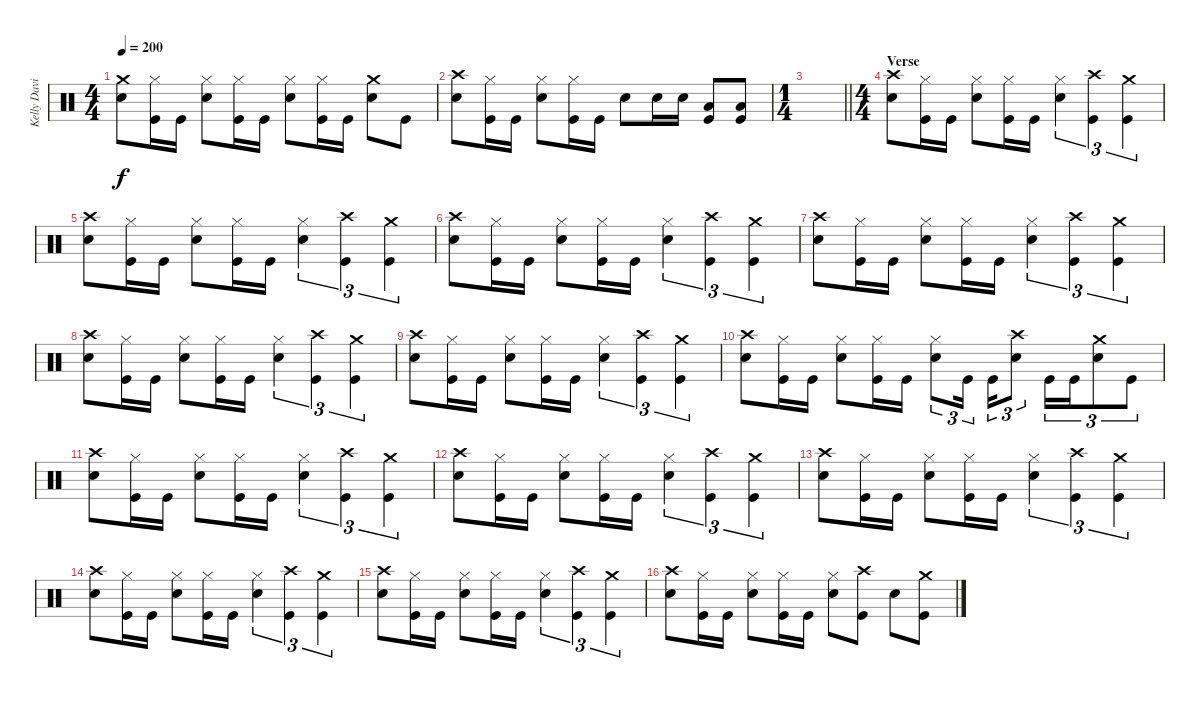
\track ("Kelly David Smith" "Kelly Davi") {instrument percussion}
\staff {score}
\articulation defaults
\ts (4 4)
\tempo 200
\clef neutral
\ks c
("Crash medium (hit)" "Snare (hit) 2").8{dy f} ("Hi-Hat (closed)" "Kick (hit)").16 "Kick (hit)".16 ("Hi-Hat (closed)" "Snare (hit) 2").8 ("Hi-Hat (closed)" "Kick (hit)").16 "Kick (hit)".16 ("Hi-Hat (closed)" "Snare (hit) 2").8 ("Hi-Hat (closed)" "Kick (hit)").16 "Kick (hit)".16 ("Crash medium (hit)" "Snare (hit) 2").8 "Kick (hit)".8 |
("Crash high (hit)" "Snare (hit) 2").8 ("Hi-Hat (closed)" "Kick (hit)").16 "Kick (hit)".16 ("Hi-Hat (closed)" "Snare (hit) 2").8 ("Hi-Hat (closed)" "Kick (hit)").16 "Kick (hit)".16 "Snare (hit) 2".8 "Snare (hit) 2".16 "Snare (hit) 2".16 ("Low Floor Tom (hit)" "Kick (hit)").8 ("Low Floor Tom (hit)" "Kick (hit)").8 |
\ts (1 4)
\barLineRight lightlight
|
\ts (4 4)
\section ("" "Verse")
("Crash high (hit)" "Snare (hit) 2").8 ("Hi-Hat (closed)" "Kick (hit)").16 "Kick (hit)".16 ("Hi-Hat (closed)" "Snare (hit) 2").8 ("Hi-Hat (closed)" "Kick (hit)").16 "Kick (hit)".16 ("Hi-Hat (closed)" "Snare (hit) 2").4{tu (3 2)} ("Crash high (hit)" "Kick (hit)").4{tu (3 2)} ("Crash medium (hit)" "Kick (hit)").4{tu (3 2)} |
("Crash high (hit)" "Snare (hit) 2").8 ("Hi-Hat (closed)" "Kick (hit)").16 "Kick (hit)".16 ("Hi-Hat (closed)" "Snare (hit) 2").8 ("Hi-Hat (closed)" "Kick (hit)").16 "Kick (hit)".16 ("Hi-Hat (closed)" "Snare (hit) 2").4{tu (3 2)} ("Crash high (hit)" "Kick (hit)").4{tu (3 2)} ("Crash medium (hit)" "Kick (hit)").4{tu (3 2)} |
("Crash high (hit)" "Snare (hit) 2").8 ("Hi-Hat (closed)" "Kick (hit)").16 "Kick (hit)".16 ("Hi-Hat (closed)" "Snare (hit) 2").8 ("Hi-Hat (closed)" "Kick (hit)").16 "Kick (hit)".16 ("Hi-Hat (closed)" "Snare (hit) 2").4{tu (3 2)} ("Crash high (hit)" "Kick (hit)").4{tu (3 2)} ("Crash medium (hit)" "Kick (hit)").4{tu (3 2)} |
("Crash high (hit)" "Snare (hit) 2").8 ("Hi-Hat (closed)" "Kick (hit)").16 "Kick (hit)".16 ("Hi-Hat (closed)" "Snare (hit) 2").8 ("Hi-Hat (closed)" "Kick (hit)").16 "Kick (hit)".16 ("Hi-Hat (closed)" "Snare (hit) 2").4{tu (3 2)} ("Crash high (hit)" "Kick (hit)").4{tu (3 2)} ("Crash medium (hit)" "Kick (hit)").4{tu (3 2)} |
("Crash high (hit)" "Snare (hit) 2").8 ("Hi-Hat (closed)" "Kick (hit)").16 "Kick (hit)".16 ("Hi-Hat (closed)" "Snare (hit) 2").8 ("Hi-Hat (closed)" "Kick (hit)").16 "Kick (hit)".16 ("Hi-Hat (closed)" "Snare (hit) 2").4{tu (3 2)} ("Crash high (hit)" "Kick (hit)").4{tu (3 2)} ("Crash medium (hit)" "Kick (hit)").4{tu (3 2)} |
("Crash high (hit)" "Snare (hit) 2").8 ("Hi-Hat (closed)" "Kick (hit)").16 "Kick (hit)".16 ("Hi-Hat (closed)" "Snare (hit) 2").8 ("Hi-Hat (closed)" "Kick (hit)").16 "Kick (hit)".16 ("Hi-Hat (closed)" "Snare (hit) 2").4{tu (3 2)} ("Crash high (hit)" "Kick (hit)").4{tu (3 2)} ("Crash medium (hit)" "Kick (hit)").4{tu (3 2)} |
("Crash high (hit)" "Snare (hit) 2").8 ("Hi-Hat (closed)" "Kick (hit)").16 "Kick (hit)".16 ("Hi-Hat (closed)" "Snare (hit) 2").8 ("Hi-Hat (closed)" "Kick (hit)").16 "Kick (hit)".16 ("Hi-Hat (closed)" "Snare (hit) 2").8{tu (3 2)} "Kick (hit)".16{tu (3 2)} "Kick (hit)".16{tu (3 2)} ("Crash high (hit)" "Snare (hit) 2").8{tu (3 2)} "Kick (hit)".16{tu (3 2)} "Kick (hit)".16{tu (3 2)} ("Crash medium (hit)" "Snare (hit) 2").8{tu (3 2)} "Kick (hit)".8{tu (3 2)} |
("Crash high (hit)" "Snare (hit) 2").8 ("Hi-Hat (closed)" "Kick (hit)").16 "Kick (hit)".16 ("Hi-Hat (closed)" "Snare (hit) 2").8 ("Hi-Hat (closed)" "Kick (hit)").16 "Kick (hit)".16 ("Hi-Hat (closed)" "Snare (hit) 2").4{tu (3 2)} ("Crash high (hit)" "Kick (hit)").4{tu (3 2)} ("Crash medium (hit)" "Kick (hit)").4{tu (3 2)} |
("Crash high (hit)" "Snare (hit) 2").8 ("Hi-Hat (closed)" "Kick (hit)").16 "Kick (hit)".16 ("Hi-Hat (closed)" "Snare (hit) 2").8 ("Hi-Hat (closed)" "Kick (hit)").16 "Kick (hit)".16 ("Hi-Hat (closed)" "Snare (hit) 2").4{tu (3 2)} ("Crash high (hit)" "Kick (hit)").4{tu (3 2)} ("Crash medium (hit)" "Kick (hit)").4{tu (3 2)} |
("Crash high (hit)" "Snare (hit) 2").8 ("Hi-Hat (closed)" "Kick (hit)").16 "Kick (hit)".16 ("Hi-Hat (closed)" "Snare (hit) 2").8 ("Hi-Hat (closed)" "Kick (hit)").16 "Kick (hit)".16 ("Hi-Hat (closed)" "Snare (hit) 2").4{tu (3 2)} ("Crash high (hit)" "Kick (hit)").4{tu (3 2)} ("Crash medium (hit)" "Kick (hit)").4{tu (3 2)} |
("Crash high (hit)" "Snare (hit) 2").8 ("Hi-Hat (closed)" "Kick (hit)").16 "Kick (hit)".16 ("Hi-Hat (closed)" "Snare (hit) 2").8 ("Hi-Hat (closed)" "Kick (hit)").16 "Kick (hit)".16 ("Hi-Hat (closed)" "Snare (hit) 2").4{tu (3 2)} ("Crash high (hit)" "Kick (hit)").4{tu (3 2)} ("Crash medium (hit)" "Kick (hit)").4{tu (3 2)} |
("Crash high (hit)" "Snare (hit) 2").8 ("Hi-Hat (closed)" "Kick (hit)").16 "Kick (hit)".16 ("Hi-Hat (closed)" "Snare (hit) 2").8 ("Hi-Hat (closed)" "Kick (hit)").16 "Kick (hit)".16 ("Hi-Hat (closed)" "Snare (hit) 2").4{tu (3 2)} ("Crash high (hit)" "Kick (hit)").4{tu (3 2)} ("Crash medium (hit)" "Kick (hit)").4{tu (3 2)} |
("Crash high (hit)" "Snare (hit) 2").8 ("Hi-Hat (closed)" "Kick (hit)").16 "Kick (hit)".16 ("Hi-Hat (closed)" "Snare (hit) 2").8 ("Hi-Hat (closed)" "Kick (hit)").16 "Kick (hit)".16 ("Hi-Hat (closed)" "Snare (hit) 2").8 ("Crash high (hit)" "Kick (hit)").8 "Snare (hit) 2".8 ("Crash medium (hit)" "Kick (hit)").8
